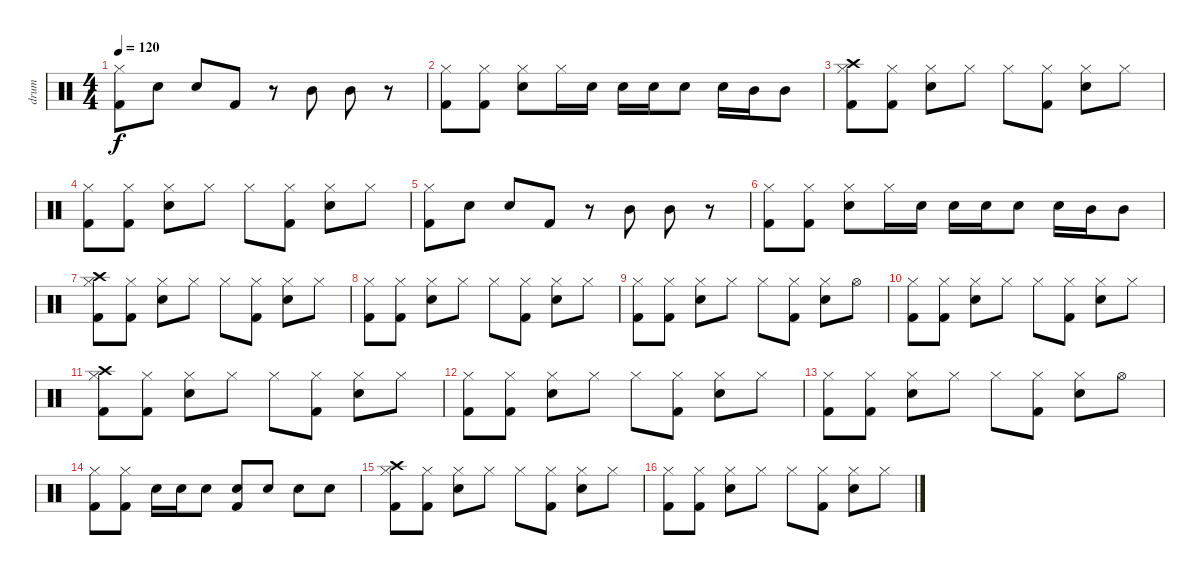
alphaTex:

\track ("drum" "drum") {instrument percussion}
\staff {score}
\articulation defaults
\ts (4 4)
\tempo 120
\clef neutral
\ks c
("Hi-Hat (closed)" "Kick (hit) 2").8{dy f} "Electric Snare (hit)".8 "Electric Snare (hit)".8 "Kick (hit) 2".8 r.8 "Mid Tom (hit)".8 "Mid Tom (hit)".8 r.8 |
("Hi-Hat (closed)" "Kick (hit) 2").8 ("Hi-Hat (closed)" "Kick (hit) 2").8 ("Hi-Hat (closed)" "Electric Snare (hit)").8 "Hi-Hat (closed)".16 "Electric Snare (hit)".16 "Electric Snare (hit)".16 "Electric Snare (hit)".16 "Electric Snare (hit)".8 "Electric Snare (hit)".16 "Mid Tom (hit)".16 "Mid Tom (hit)".8 |
("Crash high (hit)" "Hi-Hat (closed)" "Kick (hit) 2").8 ("Hi-Hat (closed)" "Kick (hit) 2").8 ("Hi-Hat (closed)" "Electric Snare (hit)").8 "Hi-Hat (closed)".8 "Hi-Hat (closed)".8 ("Hi-Hat (closed)" "Kick (hit) 2").8 ("Hi-Hat (closed)" "Electric Snare (hit)").8 "Hi-Hat (closed)".8 |
("Hi-Hat (closed)" "Kick (hit) 2").8 ("Hi-Hat (closed)" "Kick (hit) 2").8 ("Hi-Hat (closed)" "Electric Snare (hit)").8 "Hi-Hat (closed)".8 "Hi-Hat (closed)".8 ("Hi-Hat (closed)" "Kick (hit) 2").8 ("Hi-Hat (closed)" "Electric Snare (hit)").8 "Hi-Hat (closed)".8 |
("Hi-Hat (closed)" "Kick (hit) 2").8 "Electric Snare (hit)".8 "Electric Snare (hit)".8 "Kick (hit) 2".8 r.8 "Mid Tom (hit)".8 "Mid Tom (hit)".8 r.8 |
("Hi-Hat (closed)" "Kick (hit) 2").8 ("Hi-Hat (closed)" "Kick (hit) 2").8 ("Hi-Hat (closed)" "Electric Snare (hit)").8 "Hi-Hat (closed)".16 "Electric Snare (hit)".16 "Electric Snare (hit)".16 "Electric Snare (hit)".16 "Electric Snare (hit)".8 "Electric Snare (hit)".16 "Mid Tom (hit)".16 "Mid Tom (hit)".8 |
("Crash high (hit)" "Hi-Hat (closed)" "Kick (hit) 2").8 ("Hi-Hat (closed)" "Kick (hit) 2").8 ("Hi-Hat (closed)" "Electric Snare (hit)").8 "Hi-Hat (closed)".8 "Hi-Hat (closed)".8 ("Hi-Hat (closed)" "Kick (hit) 2").8 ("Hi-Hat (closed)" "Electric Snare (hit)").8 "Hi-Hat (closed)".8 |
("Hi-Hat (closed)" "Kick (hit) 2").8 ("Hi-Hat (closed)" "Kick (hit) 2").8 ("Hi-Hat (closed)" "Electric Snare (hit)").8 "Hi-Hat (closed)".8 "Hi-Hat (closed)".8 ("Hi-Hat (closed)" "Kick (hit) 2").8 ("Hi-Hat (closed)" "Electric Snare (hit)").8 "Hi-Hat (closed)".8 |
("Hi-Hat (closed)" "Kick (hit) 2").8 ("Hi-Hat (closed)" "Kick (hit) 2").8 ("Hi-Hat (closed)" "Electric Snare (hit)").8 "Hi-Hat (closed)".8 "Hi-Hat (closed)".8 ("Hi-Hat (closed)" "Kick (hit) 2").8 ("Hi-Hat (closed)" "Electric Snare (hit)").8 "Hi-Hat (open)".8 |
("Hi-Hat (closed)" "Kick (hit) 2").8 ("Hi-Hat (closed)" "Kick (hit) 2").8 ("Hi-Hat (closed)" "Electric Snare (hit)").8 "Hi-Hat (closed)".8 "Hi-Hat (closed)".8 ("Hi-Hat (closed)" "Kick (hit) 2").8 ("Hi-Hat (closed)" "Electric Snare (hit)").8 "Hi-Hat (closed)".8 |
("Crash high (hit)" "Hi-Hat (closed)" "Kick (hit) 2").8 ("Hi-Hat (closed)" "Kick (hit) 2").8 ("Hi-Hat (closed)" "Electric Snare (hit)").8 "Hi-Hat (closed)".8 "Hi-Hat (closed)".8 ("Hi-Hat (closed)" "Kick (hit) 2").8 ("Hi-Hat (closed)" "Electric Snare (hit)").8 "Hi-Hat (closed)".8 |
("Hi-Hat (closed)" "Kick (hit) 2").8 ("Hi-Hat (closed)" "Kick (hit) 2").8 ("Hi-Hat (closed)" "Electric Snare (hit)").8 "Hi-Hat (closed)".8 "Hi-Hat (closed)".8 ("Hi-Hat (closed)" "Kick (hit) 2").8 ("Hi-Hat (closed)" "Electric Snare (hit)").8 "Hi-Hat (closed)".8 |
("Hi-Hat (closed)" "Kick (hit) 2").8 ("Hi-Hat (closed)" "Kick (hit) 2").8 ("Hi-Hat (closed)" "Electric Snare (hit)").8 "Hi-Hat (closed)".8 "Hi-Hat (closed)".8 ("Hi-Hat (closed)" "Kick (hit) 2").8 ("Hi-Hat (closed)" "Electric Snare (hit)").8 "Hi-Hat (open)".8 |
("Hi-Hat (closed)" "Kick (hit) 2").8 ("Hi-Hat (closed)" "Kick (hit) 2").8 "Electric Snare (hit)".16 "Electric Snare (hit)".16 "Electric Snare (hit)".8 ("Electric Snare (hit)" "Kick (hit) 2").8 "Electric Snare (hit)".8 "Electric Snare (hit)".8 "Electric Snare (hit)".8 |
("Crash high (hit)" "Hi-Hat (closed)" "Kick (hit) 2").8 ("Hi-Hat (closed)" "Kick (hit) 2").8 ("Hi-Hat (closed)" "Electric Snare (hit)").8 "Hi-Hat (closed)".8 "Hi-Hat (closed)".8 ("Hi-Hat (closed)" "Kick (hit) 2").8 ("Hi-Hat (closed)" "Electric Snare (hit)").8 "Hi-Hat (closed)".8 |
("Hi-Hat (closed)" "Kick (hit) 2").8 ("Hi-Hat (closed)" "Kick (hit) 2").8 ("Hi-Hat (closed)" "Electric Snare (hit)").8 "Hi-Hat (closed)".8 "Hi-Hat (closed)".8 ("Hi-Hat (closed)" "Kick (hit) 2").8 ("Hi-Hat (closed)" "Electric Snare (hit)").8 "Hi-Hat (closed)".8
